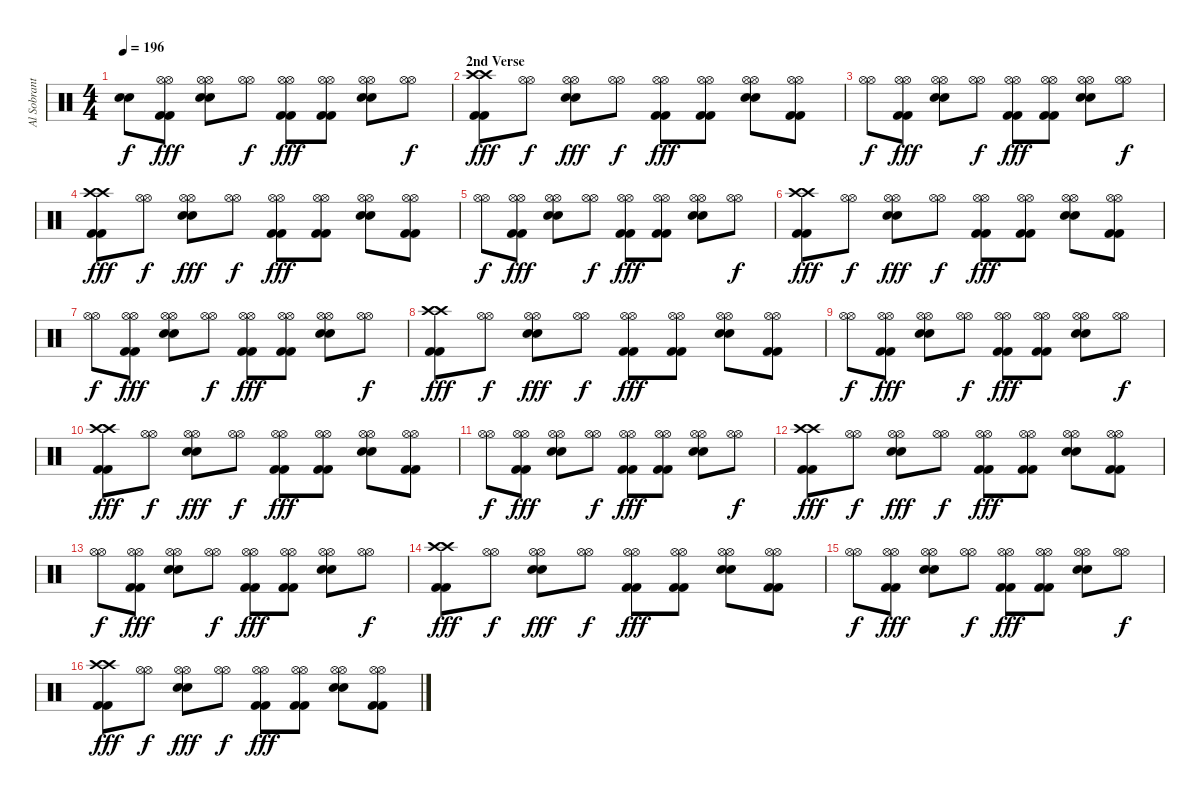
\track ("Al Sobrante (Drums)" "Al Sobrant") {instrument percussion}
\staff {score}
\articulation defaults
\ts (4 4)
\tempo 196
\clef neutral
\ks c
("Snare (hit)"{t} "Snare (hit)"{t}).8{dy f} ("Kick (hit) 2" "Kick (hit) 2" "Hi-Hat (open)" "Hi-Hat (open)").8{dy fff} ("Electric Snare (hit)" "Electric Snare (hit)" "Hi-Hat (open)" "Hi-Hat (open)").8 ("Hi-Hat (open)" "Hi-Hat (open)").8{dy f} ("Kick (hit) 2" "Kick (hit) 2" "Hi-Hat (open)" "Hi-Hat (open)").8{dy fff} ("Kick (hit) 2" "Kick (hit) 2" "Hi-Hat (open)" "Hi-Hat (open)").8 ("Electric Snare (hit)" "Electric Snare (hit)" "Hi-Hat (open)" "Hi-Hat (open)").8 ("Hi-Hat (open)" "Hi-Hat (open)").8{dy f} |
\section ("" "2nd Verse")
("Kick (hit) 2" "Kick (hit) 2" "Crash high (hit)" "Crash high (hit)").8{dy fff} ("Hi-Hat (open)" "Hi-Hat (open)").8{dy f} ("Electric Snare (hit)" "Electric Snare (hit)" "Hi-Hat (open)" "Hi-Hat (open)").8{dy fff} ("Hi-Hat (open)" "Hi-Hat (open)").8{dy f} ("Kick (hit) 2" "Kick (hit) 2" "Hi-Hat (open)" "Hi-Hat (open)").8{dy fff} ("Kick (hit) 2" "Kick (hit) 2" "Hi-Hat (open)" "Hi-Hat (open)").8 ("Electric Snare (hit)" "Electric Snare (hit)" "Hi-Hat (open)" "Hi-Hat (open)").8 ("Kick (hit) 2" "Kick (hit) 2" "Hi-Hat (open)" "Hi-Hat (open)").8 |
("Hi-Hat (open)" "Hi-Hat (open)").8{dy f} ("Kick (hit) 2" "Kick (hit) 2" "Hi-Hat (open)" "Hi-Hat (open)").8{dy fff} ("Electric Snare (hit)" "Electric Snare (hit)" "Hi-Hat (open)" "Hi-Hat (open)").8 ("Hi-Hat (open)" "Hi-Hat (open)").8{dy f} ("Kick (hit) 2" "Kick (hit) 2" "Hi-Hat (open)" "Hi-Hat (open)").8{dy fff} ("Kick (hit) 2" "Kick (hit) 2" "Hi-Hat (open)" "Hi-Hat (open)").8 ("Electric Snare (hit)" "Electric Snare (hit)" "Hi-Hat (open)" "Hi-Hat (open)").8 ("Hi-Hat (open)" "Hi-Hat (open)").8{dy f} |
("Kick (hit) 2" "Kick (hit) 2" "Crash high (hit)" "Crash high (hit)").8{dy fff} ("Hi-Hat (open)" "Hi-Hat (open)").8{dy f} ("Electric Snare (hit)" "Electric Snare (hit)" "Hi-Hat (open)" "Hi-Hat (open)").8{dy fff} ("Hi-Hat (open)" "Hi-Hat (open)").8{dy f} ("Kick (hit) 2" "Kick (hit) 2" "Hi-Hat (open)" "Hi-Hat (open)").8{dy fff} ("Kick (hit) 2" "Kick (hit) 2" "Hi-Hat (open)" "Hi-Hat (open)").8 ("Electric Snare (hit)" "Electric Snare (hit)" "Hi-Hat (open)" "Hi-Hat (open)").8 ("Kick (hit) 2" "Kick (hit) 2" "Hi-Hat (open)" "Hi-Hat (open)").8 |
("Hi-Hat (open)" "Hi-Hat (open)").8{dy f} ("Kick (hit) 2" "Kick (hit) 2" "Hi-Hat (open)" "Hi-Hat (open)").8{dy fff} ("Electric Snare (hit)" "Electric Snare (hit)" "Hi-Hat (open)" "Hi-Hat (open)").8 ("Hi-Hat (open)" "Hi-Hat (open)").8{dy f} ("Kick (hit) 2" "Kick (hit) 2" "Hi-Hat (open)" "Hi-Hat (open)").8{dy fff} ("Kick (hit) 2" "Kick (hit) 2" "Hi-Hat (open)" "Hi-Hat (open)").8 ("Electric Snare (hit)" "Electric Snare (hit)" "Hi-Hat (open)" "Hi-Hat (open)").8 ("Hi-Hat (open)" "Hi-Hat (open)").8{dy f} |
("Kick (hit) 2" "Kick (hit) 2" "Crash high (hit)" "Crash high (hit)").8{dy fff} ("Hi-Hat (open)" "Hi-Hat (open)").8{dy f} ("Electric Snare (hit)" "Electric Snare (hit)" "Hi-Hat (open)" "Hi-Hat (open)").8{dy fff} ("Hi-Hat (open)" "Hi-Hat (open)").8{dy f} ("Kick (hit) 2" "Kick (hit) 2" "Hi-Hat (open)" "Hi-Hat (open)").8{dy fff} ("Kick (hit) 2" "Kick (hit) 2" "Hi-Hat (open)" "Hi-Hat (open)").8 ("Electric Snare (hit)" "Electric Snare (hit)" "Hi-Hat (open)" "Hi-Hat (open)").8 ("Kick (hit) 2" "Kick (hit) 2" "Hi-Hat (open)" "Hi-Hat (open)").8 |
("Hi-Hat (open)" "Hi-Hat (open)").8{dy f} ("Kick (hit) 2" "Kick (hit) 2" "Hi-Hat (open)" "Hi-Hat (open)").8{dy fff} ("Electric Snare (hit)" "Electric Snare (hit)" "Hi-Hat (open)" "Hi-Hat (open)").8 ("Hi-Hat (open)" "Hi-Hat (open)").8{dy f} ("Kick (hit) 2" "Kick (hit) 2" "Hi-Hat (open)" "Hi-Hat (open)").8{dy fff} ("Kick (hit) 2" "Kick (hit) 2" "Hi-Hat (open)" "Hi-Hat (open)").8 ("Electric Snare (hit)" "Electric Snare (hit)" "Hi-Hat (open)" "Hi-Hat (open)").8 ("Hi-Hat (open)" "Hi-Hat (open)").8{dy f} |
("Kick (hit) 2" "Kick (hit) 2" "Crash high (hit)" "Crash high (hit)").8{dy fff} ("Hi-Hat (open)" "Hi-Hat (open)").8{dy f} ("Electric Snare (hit)" "Electric Snare (hit)" "Hi-Hat (open)" "Hi-Hat (open)").8{dy fff} ("Hi-Hat (open)" "Hi-Hat (open)").8{dy f} ("Kick (hit) 2" "Kick (hit) 2" "Hi-Hat (open)" "Hi-Hat (open)").8{dy fff} ("Kick (hit) 2" "Kick (hit) 2" "Hi-Hat (open)" "Hi-Hat (open)").8 ("Electric Snare (hit)" "Electric Snare (hit)" "Hi-Hat (open)" "Hi-Hat (open)").8 ("Kick (hit) 2" "Kick (hit) 2" "Hi-Hat (open)" "Hi-Hat (open)").8 |
("Hi-Hat (open)" "Hi-Hat (open)").8{dy f} ("Kick (hit) 2" "Kick (hit) 2" "Hi-Hat (open)" "Hi-Hat (open)").8{dy fff} ("Electric Snare (hit)" "Electric Snare (hit)" "Hi-Hat (open)" "Hi-Hat (open)").8 ("Hi-Hat (open)" "Hi-Hat (open)").8{dy f} ("Kick (hit) 2" "Kick (hit) 2" "Hi-Hat (open)" "Hi-Hat (open)").8{dy fff} ("Kick (hit) 2" "Kick (hit) 2" "Hi-Hat (open)" "Hi-Hat (open)").8 ("Electric Snare (hit)" "Electric Snare (hit)" "Hi-Hat (open)" "Hi-Hat (open)").8 ("Hi-Hat (open)" "Hi-Hat (open)").8{dy f} |
("Kick (hit) 2" "Kick (hit) 2" "Crash high (hit)" "Crash high (hit)").8{dy fff} ("Hi-Hat (open)" "Hi-Hat (open)").8{dy f} ("Electric Snare (hit)" "Electric Snare (hit)" "Hi-Hat (open)" "Hi-Hat (open)").8{dy fff} ("Hi-Hat (open)" "Hi-Hat (open)").8{dy f} ("Kick (hit) 2" "Kick (hit) 2" "Hi-Hat (open)" "Hi-Hat (open)").8{dy fff} ("Kick (hit) 2" "Kick (hit) 2" "Hi-Hat (open)" "Hi-Hat (open)").8 ("Electric Snare (hit)" "Electric Snare (hit)" "Hi-Hat (open)" "Hi-Hat (open)").8 ("Kick (hit) 2" "Kick (hit) 2" "Hi-Hat (open)" "Hi-Hat (open)").8 |
("Hi-Hat (open)" "Hi-Hat (open)").8{dy f} ("Kick (hit) 2" "Kick (hit) 2" "Hi-Hat (open)" "Hi-Hat (open)").8{dy fff} ("Electric Snare (hit)" "Electric Snare (hit)" "Hi-Hat (open)" "Hi-Hat (open)").8 ("Hi-Hat (open)" "Hi-Hat (open)").8{dy f} ("Kick (hit) 2" "Kick (hit) 2" "Hi-Hat (open)" "Hi-Hat (open)").8{dy fff} ("Kick (hit) 2" "Kick (hit) 2" "Hi-Hat (open)" "Hi-Hat (open)").8 ("Electric Snare (hit)" "Electric Snare (hit)" "Hi-Hat (open)" "Hi-Hat (open)").8 ("Hi-Hat (open)" "Hi-Hat (open)").8{dy f} |
("Kick (hit) 2" "Kick (hit) 2" "Crash high (hit)" "Crash high (hit)").8{dy fff} ("Hi-Hat (open)" "Hi-Hat (open)").8{dy f} ("Electric Snare (hit)" "Electric Snare (hit)" "Hi-Hat (open)" "Hi-Hat (open)").8{dy fff} ("Hi-Hat (open)" "Hi-Hat (open)").8{dy f} ("Kick (hit) 2" "Kick (hit) 2" "Hi-Hat (open)" "Hi-Hat (open)").8{dy fff} ("Kick (hit) 2" "Kick (hit) 2" "Hi-Hat (open)" "Hi-Hat (open)").8 ("Electric Snare (hit)" "Electric Snare (hit)" "Hi-Hat (open)" "Hi-Hat (open)").8 ("Kick (hit) 2" "Kick (hit) 2" "Hi-Hat (open)" "Hi-Hat (open)").8 |
("Hi-Hat (open)" "Hi-Hat (open)").8{dy f} ("Kick (hit) 2" "Kick (hit) 2" "Hi-Hat (open)" "Hi-Hat (open)").8{dy fff} ("Electric Snare (hit)" "Electric Snare (hit)" "Hi-Hat (open)" "Hi-Hat (open)").8 ("Hi-Hat (open)" "Hi-Hat (open)").8{dy f} ("Kick (hit) 2" "Kick (hit) 2" "Hi-Hat (open)" "Hi-Hat (open)").8{dy fff} ("Kick (hit) 2" "Kick (hit) 2" "Hi-Hat (open)" "Hi-Hat (open)").8 ("Electric Snare (hit)" "Electric Snare (hit)" "Hi-Hat (open)" "Hi-Hat (open)").8 ("Hi-Hat (open)" "Hi-Hat (open)").8{dy f} |
("Kick (hit) 2" "Kick (hit) 2" "Crash high (hit)" "Crash high (hit)").8{dy fff} ("Hi-Hat (open)" "Hi-Hat (open)").8{dy f} ("Electric Snare (hit)" "Electric Snare (hit)" "Hi-Hat (open)" "Hi-Hat (open)").8{dy fff} ("Hi-Hat (open)" "Hi-Hat (open)").8{dy f} ("Kick (hit) 2" "Kick (hit) 2" "Hi-Hat (open)" "Hi-Hat (open)").8{dy fff} ("Kick (hit) 2" "Kick (hit) 2" "Hi-Hat (open)" "Hi-Hat (open)").8 ("Electric Snare (hit)" "Electric Snare (hit)" "Hi-Hat (open)" "Hi-Hat (open)").8 ("Kick (hit) 2" "Kick (hit) 2" "Hi-Hat (open)" "Hi-Hat (open)").8 |
("Hi-Hat (open)" "Hi-Hat (open)").8{dy f} ("Kick (hit) 2" "Kick (hit) 2" "Hi-Hat (open)" "Hi-Hat (open)").8{dy fff} ("Electric Snare (hit)" "Electric Snare (hit)" "Hi-Hat (open)" "Hi-Hat (open)").8 ("Hi-Hat (open)" "Hi-Hat (open)").8{dy f} ("Kick (hit) 2" "Kick (hit) 2" "Hi-Hat (open)" "Hi-Hat (open)").8{dy fff} ("Kick (hit) 2" "Kick (hit) 2" "Hi-Hat (open)" "Hi-Hat (open)").8 ("Electric Snare (hit)" "Electric Snare (hit)" "Hi-Hat (open)" "Hi-Hat (open)").8 ("Hi-Hat (open)" "Hi-Hat (open)").8{dy f} |
("Kick (hit) 2" "Kick (hit) 2" "Crash high (hit)" "Crash high (hit)").8{dy fff} ("Hi-Hat (open)" "Hi-Hat (open)").8{dy f} ("Electric Snare (hit)" "Electric Snare (hit)" "Hi-Hat (open)" "Hi-Hat (open)").8{dy fff} ("Hi-Hat (open)" "Hi-Hat (open)").8{dy f} ("Kick (hit) 2" "Kick (hit) 2" "Hi-Hat (open)" "Hi-Hat (open)").8{dy fff} ("Kick (hit) 2" "Kick (hit) 2" "Hi-Hat (open)" "Hi-Hat (open)").8 ("Electric Snare (hit)" "Electric Snare (hit)" "Hi-Hat (open)" "Hi-Hat (open)").8 ("Kick (hit) 2" "Kick (hit) 2" "Hi-Hat (open)" "Hi-Hat (open)").8
